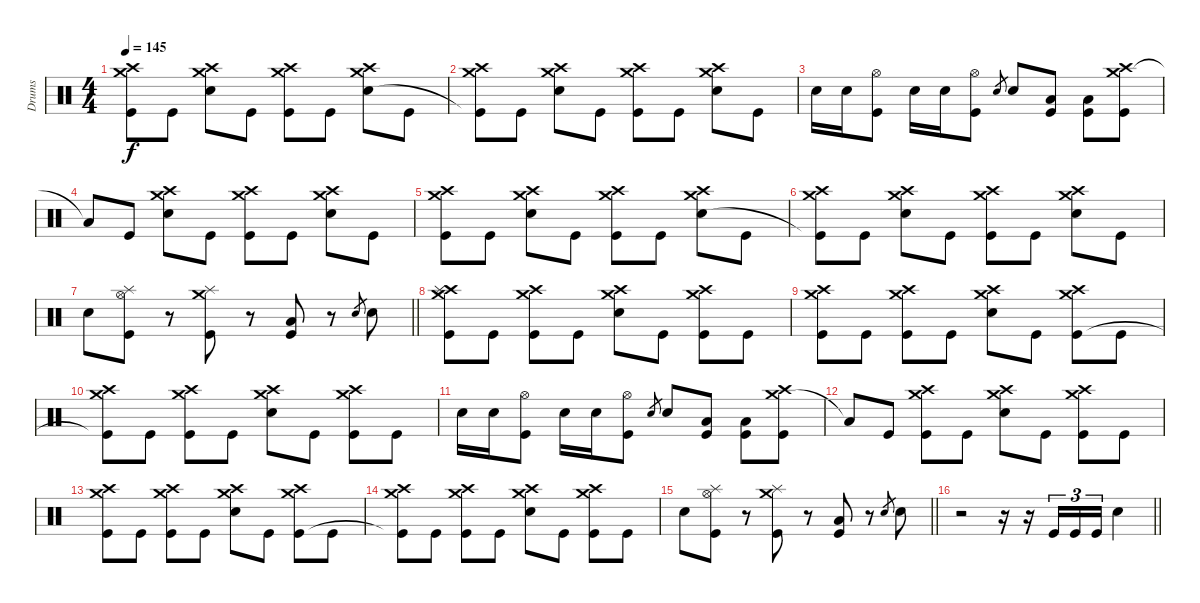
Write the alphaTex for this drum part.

\track ("Drums" "Drums") {instrument percussion}
\staff {score}
\articulation defaults
\ts (4 4)
\tempo 145
\clef neutral
\ks c
("Crash medium (hit)" "Crash high (hit)" "Kick (hit)").8{dy f} "Kick (hit)".8 ("Crash medium (hit)" "Crash high (hit)" "Electric Snare (hit)").8 "Kick (hit)".8 ("Crash medium (hit)" "Crash high (hit)" "Kick (hit)").8 "Kick (hit)".8 ("Crash medium (hit)" "Crash high (hit)" "Electric Snare (hit)").8 "Kick (hit)".8 |
("Crash medium (hit)" "Crash high (hit)" "Kick (hit)"{t}).8 "Kick (hit)".8 ("Crash medium (hit)" "Crash high (hit)" "Electric Snare (hit)").8 "Kick (hit)".8 ("Crash medium (hit)" "Crash high (hit)" "Kick (hit)").8 "Kick (hit)".8 ("Crash medium (hit)" "Crash high (hit)" "Electric Snare (hit)").8 "Kick (hit)".8 |
"Electric Snare (hit)".16 "Electric Snare (hit)".16 ("Hi-Hat (open)" "Kick (hit)").8 "Electric Snare (hit)".16 "Electric Snare (hit)".16 ("Hi-Hat (open)" "Kick (hit)").8 "Electric Snare (hit)".8{gr} "Electric Snare (hit)".8 ("Kick (hit)" "Low Floor Tom (hit)").8 ("Kick (hit)" "Low Floor Tom (hit)").8 ("Crash medium (hit)" "Crash high (hit)" "Kick (hit)").8 |
"Low Floor Tom (hit)"{t}.8 "Kick (hit)".8 ("Crash medium (hit)" "Crash high (hit)" "Electric Snare (hit)").8 "Kick (hit)".8 ("Crash medium (hit)" "Crash high (hit)" "Kick (hit)").8 "Kick (hit)".8 ("Crash medium (hit)" "Crash high (hit)" "Electric Snare (hit)").8 "Kick (hit)".8 |
("Crash medium (hit)" "Crash high (hit)" "Kick (hit)").8 "Kick (hit)".8 ("Crash medium (hit)" "Crash high (hit)" "Electric Snare (hit)").8 "Kick (hit)".8 ("Crash medium (hit)" "Crash high (hit)" "Kick (hit)").8 "Kick (hit)".8 ("Crash medium (hit)" "Crash high (hit)" "Electric Snare (hit)").8 "Kick (hit)".8 |
("Crash medium (hit)" "Crash high (hit)" "Kick (hit)"{t}).8 "Kick (hit)".8 ("Crash medium (hit)" "Crash high (hit)" "Electric Snare (hit)").8 "Kick (hit)".8 ("Crash medium (hit)" "Crash high (hit)" "Kick (hit)").8 "Kick (hit)".8 ("Crash medium (hit)" "Crash high (hit)" "Electric Snare (hit)").8 "Kick (hit)".8 |
\barLineRight lightlight "Electric Snare (hit)".8
("Hi-Hat (open)" "Splash (hit)" "Kick (hit)").8 r.8 ("Crash medium (hit)" "Splash (hit)" "Kick (hit)").8 r.8 ("Low Floor Tom (hit)" "Kick (hit)").8 r.8 "Electric Snare (hit)".8{gr} "Electric Snare (hit)".8 |
("Crash medium (hit)" "Crash high (hit)" "Splash (hit)" "Kick (hit)").8 "Kick (hit)".8 ("Crash medium (hit)" "Crash high (hit)" "Kick (hit)").8 "Kick (hit)".8 ("Crash medium (hit)" "Crash high (hit)" "Electric Snare (hit)").8 "Kick (hit)".8 ("Crash medium (hit)" "Crash high (hit)" "Kick (hit)").8 "Kick (hit)".8 |
("Crash medium (hit)" "Crash high (hit)" "Kick (hit)").8 "Kick (hit)".8 ("Crash medium (hit)" "Crash high (hit)" "Kick (hit)").8 "Kick (hit)".8 ("Crash medium (hit)" "Crash high (hit)" "Electric Snare (hit)").8 "Kick (hit)".8 ("Crash medium (hit)" "Crash high (hit)" "Kick (hit)").8 "Kick (hit)".8 |
("Crash medium (hit)" "Crash high (hit)" "Kick (hit)"{t}).8 "Kick (hit)".8 ("Crash medium (hit)" "Crash high (hit)" "Kick (hit)").8 "Kick (hit)".8 ("Crash medium (hit)" "Crash high (hit)" "Electric Snare (hit)").8 "Kick (hit)".8 ("Crash medium (hit)" "Crash high (hit)" "Kick (hit)").8 "Kick (hit)".8 |
"Electric Snare (hit)".16 "Electric Snare (hit)".16 ("Hi-Hat (open)" "Kick (hit)").8 "Electric Snare (hit)".16 "Electric Snare (hit)".16 ("Hi-Hat (open)" "Kick (hit)").8 "Electric Snare (hit)".8{gr} "Electric Snare (hit)".8 ("Kick (hit)" "Low Floor Tom (hit)").8 ("Kick (hit)" "Low Floor Tom (hit)").8 ("Crash medium (hit)" "Crash high (hit)" "Kick (hit)").8 |
"Low Floor Tom (hit)"{t}.8 "Kick (hit)".8 ("Crash medium (hit)" "Crash high (hit)" "Kick (hit)").8 "Kick (hit)".8 ("Crash medium (hit)" "Crash high (hit)" "Electric Snare (hit)").8 "Kick (hit)".8 ("Crash medium (hit)" "Crash high (hit)" "Kick (hit)").8 "Kick (hit)".8 |
("Crash medium (hit)" "Crash high (hit)" "Kick (hit)").8 "Kick (hit)".8 ("Crash medium (hit)" "Crash high (hit)" "Kick (hit)").8 "Kick (hit)".8 ("Crash medium (hit)" "Crash high (hit)" "Electric Snare (hit)").8 "Kick (hit)".8 ("Crash medium (hit)" "Crash high (hit)" "Kick (hit)").8 "Kick (hit)".8 |
("Crash medium (hit)" "Crash high (hit)" "Kick (hit)"{t}).8 "Kick (hit)".8 ("Crash medium (hit)" "Crash high (hit)" "Kick (hit)").8 "Kick (hit)".8 ("Crash medium (hit)" "Crash high (hit)" "Electric Snare (hit)").8 "Kick (hit)".8 ("Crash medium (hit)" "Crash high (hit)" "Kick (hit)").8 "Kick (hit)".8 |
\barLineRight lightlight "Electric Snare (hit)".8
("Hi-Hat (open)" "Splash (hit)" "Kick (hit)").8 r.8 ("Crash medium (hit)" "Splash (hit)" "Kick (hit)").8 r.8 ("Low Floor Tom (hit)" "Kick (hit)").8 r.8 "Electric Snare (hit)".8{gr} "Electric Snare (hit)".8 |
\barLineRight lightlight
r.2 r.16 r.16 "Kick (hit)".16{tu (3 2)} "Kick (hit)".16{tu (3 2)} "Kick (hit)".16{tu (3 2)} "Electric Snare (hit)".4
